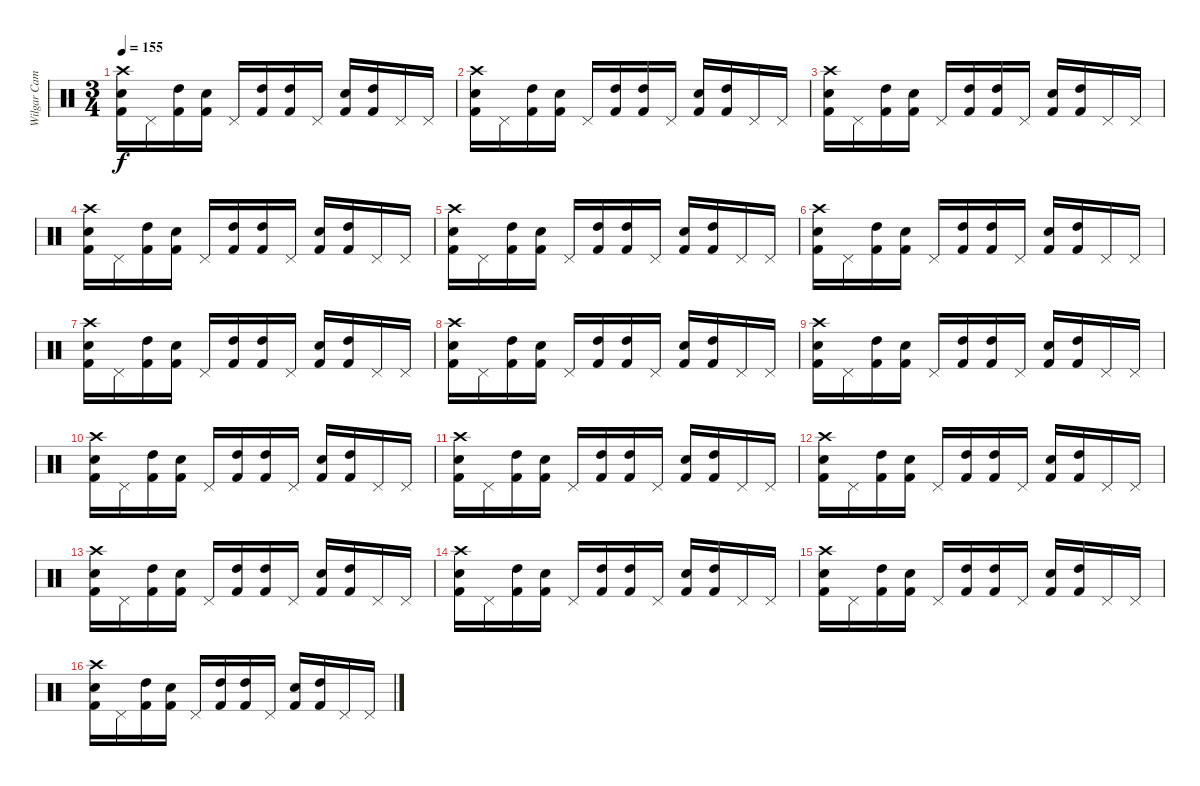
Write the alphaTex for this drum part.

\track ("Wilgar Campbell" "Wilgar Cam") {instrument percussion}
\staff {score}
\articulation defaults
\ts (3 4)
\tempo 155
\clef neutral
\ks c
("Kick (hit) 2" "Snare (hit) 2" "Crash high (hit)").16{dy f} "Pedal Hi-Hat (hit)".16 ("Kick (hit) 2" "High Tom (hit)").16 ("Kick (hit) 2" "Snare (hit) 2").16 "Pedal Hi-Hat (hit)".16 ("High Tom (hit)" "Kick (hit) 2").16 ("High Tom (hit)" "Kick (hit) 2").16 "Pedal Hi-Hat (hit)".16 ("Electric Snare (hit)" "Kick (hit) 2").16 ("High Tom (hit)" "Kick (hit) 2").16 "Pedal Hi-Hat (hit)".16 "Pedal Hi-Hat (hit)".16 |
("Kick (hit) 2" "Snare (hit) 2" "Crash high (hit)").16 "Pedal Hi-Hat (hit)".16 ("Kick (hit) 2" "High Tom (hit)").16 ("Kick (hit) 2" "Snare (hit) 2").16 "Pedal Hi-Hat (hit)".16 ("High Tom (hit)" "Kick (hit) 2").16 ("High Tom (hit)" "Kick (hit) 2").16 "Pedal Hi-Hat (hit)".16 ("Electric Snare (hit)" "Kick (hit) 2").16 ("High Tom (hit)" "Kick (hit) 2").16 "Pedal Hi-Hat (hit)".16 "Pedal Hi-Hat (hit)".16 |
("Kick (hit) 2" "Snare (hit) 2" "Crash high (hit)").16 "Pedal Hi-Hat (hit)".16 ("Kick (hit) 2" "High Tom (hit)").16 ("Kick (hit) 2" "Snare (hit) 2").16 "Pedal Hi-Hat (hit)".16 ("High Tom (hit)" "Kick (hit) 2").16 ("High Tom (hit)" "Kick (hit) 2").16 "Pedal Hi-Hat (hit)".16 ("Electric Snare (hit)" "Kick (hit) 2").16 ("High Tom (hit)" "Kick (hit) 2").16 "Pedal Hi-Hat (hit)".16 "Pedal Hi-Hat (hit)".16 |
("Kick (hit) 2" "Snare (hit) 2" "Crash high (hit)").16 "Pedal Hi-Hat (hit)".16 ("Kick (hit) 2" "High Tom (hit)").16 ("Kick (hit) 2" "Snare (hit) 2").16 "Pedal Hi-Hat (hit)".16 ("High Tom (hit)" "Kick (hit) 2").16 ("High Tom (hit)" "Kick (hit) 2").16 "Pedal Hi-Hat (hit)".16 ("Electric Snare (hit)" "Kick (hit) 2").16 ("High Tom (hit)" "Kick (hit) 2").16 "Pedal Hi-Hat (hit)".16 "Pedal Hi-Hat (hit)".16 |
("Kick (hit) 2" "Snare (hit) 2" "Crash high (hit)").16 "Pedal Hi-Hat (hit)".16 ("Kick (hit) 2" "High Tom (hit)").16 ("Kick (hit) 2" "Snare (hit) 2").16 "Pedal Hi-Hat (hit)".16 ("High Tom (hit)" "Kick (hit) 2").16 ("High Tom (hit)" "Kick (hit) 2").16 "Pedal Hi-Hat (hit)".16 ("Electric Snare (hit)" "Kick (hit) 2").16 ("High Tom (hit)" "Kick (hit) 2").16 "Pedal Hi-Hat (hit)".16 "Pedal Hi-Hat (hit)".16 |
("Kick (hit) 2" "Snare (hit) 2" "Crash high (hit)").16 "Pedal Hi-Hat (hit)".16 ("Kick (hit) 2" "High Tom (hit)").16 ("Kick (hit) 2" "Snare (hit) 2").16 "Pedal Hi-Hat (hit)".16 ("High Tom (hit)" "Kick (hit) 2").16 ("High Tom (hit)" "Kick (hit) 2").16 "Pedal Hi-Hat (hit)".16 ("Electric Snare (hit)" "Kick (hit) 2").16 ("High Tom (hit)" "Kick (hit) 2").16 "Pedal Hi-Hat (hit)".16 "Pedal Hi-Hat (hit)".16 |
("Kick (hit) 2" "Snare (hit) 2" "Crash high (hit)").16 "Pedal Hi-Hat (hit)".16 ("Kick (hit) 2" "High Tom (hit)").16 ("Kick (hit) 2" "Snare (hit) 2").16 "Pedal Hi-Hat (hit)".16 ("High Tom (hit)" "Kick (hit) 2").16 ("High Tom (hit)" "Kick (hit) 2").16 "Pedal Hi-Hat (hit)".16 ("Electric Snare (hit)" "Kick (hit) 2").16 ("High Tom (hit)" "Kick (hit) 2").16 "Pedal Hi-Hat (hit)".16 "Pedal Hi-Hat (hit)".16 |
("Kick (hit) 2" "Snare (hit) 2" "Crash high (hit)").16 "Pedal Hi-Hat (hit)".16 ("Kick (hit) 2" "High Tom (hit)").16 ("Kick (hit) 2" "Snare (hit) 2").16 "Pedal Hi-Hat (hit)".16 ("High Tom (hit)" "Kick (hit) 2").16 ("High Tom (hit)" "Kick (hit) 2").16 "Pedal Hi-Hat (hit)".16 ("Electric Snare (hit)" "Kick (hit) 2").16 ("High Tom (hit)" "Kick (hit) 2").16 "Pedal Hi-Hat (hit)".16 "Pedal Hi-Hat (hit)".16 |
("Kick (hit) 2" "Snare (hit) 2" "Crash high (hit)").16 "Pedal Hi-Hat (hit)".16 ("Kick (hit) 2" "High Tom (hit)").16 ("Kick (hit) 2" "Snare (hit) 2").16 "Pedal Hi-Hat (hit)".16 ("High Tom (hit)" "Kick (hit) 2").16 ("High Tom (hit)" "Kick (hit) 2").16 "Pedal Hi-Hat (hit)".16 ("Electric Snare (hit)" "Kick (hit) 2").16 ("High Tom (hit)" "Kick (hit) 2").16 "Pedal Hi-Hat (hit)".16 "Pedal Hi-Hat (hit)".16 |
("Kick (hit) 2" "Snare (hit) 2" "Crash high (hit)").16 "Pedal Hi-Hat (hit)".16 ("Kick (hit) 2" "High Tom (hit)").16 ("Kick (hit) 2" "Snare (hit) 2").16 "Pedal Hi-Hat (hit)".16 ("High Tom (hit)" "Kick (hit) 2").16 ("High Tom (hit)" "Kick (hit) 2").16 "Pedal Hi-Hat (hit)".16 ("Electric Snare (hit)" "Kick (hit) 2").16 ("High Tom (hit)" "Kick (hit) 2").16 "Pedal Hi-Hat (hit)".16 "Pedal Hi-Hat (hit)".16 |
("Kick (hit) 2" "Snare (hit) 2" "Crash high (hit)").16 "Pedal Hi-Hat (hit)".16 ("Kick (hit) 2" "High Tom (hit)").16 ("Kick (hit) 2" "Snare (hit) 2").16 "Pedal Hi-Hat (hit)".16 ("High Tom (hit)" "Kick (hit) 2").16 ("High Tom (hit)" "Kick (hit) 2").16 "Pedal Hi-Hat (hit)".16 ("Electric Snare (hit)" "Kick (hit) 2").16 ("High Tom (hit)" "Kick (hit) 2").16 "Pedal Hi-Hat (hit)".16 "Pedal Hi-Hat (hit)".16 |
("Kick (hit) 2" "Snare (hit) 2" "Crash high (hit)").16 "Pedal Hi-Hat (hit)".16 ("Kick (hit) 2" "High Tom (hit)").16 ("Kick (hit) 2" "Snare (hit) 2").16 "Pedal Hi-Hat (hit)".16 ("High Tom (hit)" "Kick (hit) 2").16 ("High Tom (hit)" "Kick (hit) 2").16 "Pedal Hi-Hat (hit)".16 ("Electric Snare (hit)" "Kick (hit) 2").16 ("High Tom (hit)" "Kick (hit) 2").16 "Pedal Hi-Hat (hit)".16 "Pedal Hi-Hat (hit)".16 |
("Kick (hit) 2" "Snare (hit) 2" "Crash high (hit)").16 "Pedal Hi-Hat (hit)".16 ("Kick (hit) 2" "High Tom (hit)").16 ("Kick (hit) 2" "Snare (hit) 2").16 "Pedal Hi-Hat (hit)".16 ("High Tom (hit)" "Kick (hit) 2").16 ("High Tom (hit)" "Kick (hit) 2").16 "Pedal Hi-Hat (hit)".16 ("Electric Snare (hit)" "Kick (hit) 2").16 ("High Tom (hit)" "Kick (hit) 2").16 "Pedal Hi-Hat (hit)".16 "Pedal Hi-Hat (hit)".16 |
("Kick (hit) 2" "Snare (hit) 2" "Crash high (hit)").16 "Pedal Hi-Hat (hit)".16 ("Kick (hit) 2" "High Tom (hit)").16 ("Kick (hit) 2" "Snare (hit) 2").16 "Pedal Hi-Hat (hit)".16 ("High Tom (hit)" "Kick (hit) 2").16 ("High Tom (hit)" "Kick (hit) 2").16 "Pedal Hi-Hat (hit)".16 ("Electric Snare (hit)" "Kick (hit) 2").16 ("High Tom (hit)" "Kick (hit) 2").16 "Pedal Hi-Hat (hit)".16 "Pedal Hi-Hat (hit)".16 |
("Kick (hit) 2" "Snare (hit) 2" "Crash high (hit)").16 "Pedal Hi-Hat (hit)".16 ("Kick (hit) 2" "High Tom (hit)").16 ("Kick (hit) 2" "Snare (hit) 2").16 "Pedal Hi-Hat (hit)".16 ("High Tom (hit)" "Kick (hit) 2").16 ("High Tom (hit)" "Kick (hit) 2").16 "Pedal Hi-Hat (hit)".16 ("Electric Snare (hit)" "Kick (hit) 2").16 ("High Tom (hit)" "Kick (hit) 2").16 "Pedal Hi-Hat (hit)".16 "Pedal Hi-Hat (hit)".16 |
("Kick (hit) 2" "Snare (hit) 2" "Crash high (hit)").16 "Pedal Hi-Hat (hit)".16 ("Kick (hit) 2" "High Tom (hit)").16 ("Kick (hit) 2" "Snare (hit) 2").16 "Pedal Hi-Hat (hit)".16 ("High Tom (hit)" "Kick (hit) 2").16 ("High Tom (hit)" "Kick (hit) 2").16 "Pedal Hi-Hat (hit)".16 ("Electric Snare (hit)" "Kick (hit) 2").16 ("High Tom (hit)" "Kick (hit) 2").16 "Pedal Hi-Hat (hit)".16 "Pedal Hi-Hat (hit)".16
